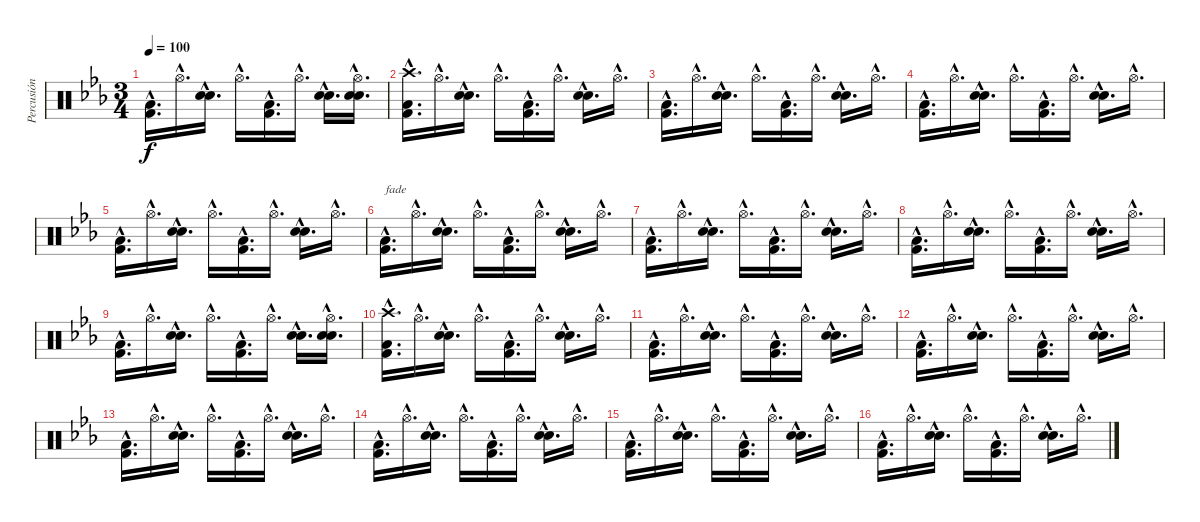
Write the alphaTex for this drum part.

\track ("Percusión" "Percusión") {instrument percussion}
\staff {score}
\articulation defaults
\ts (3 4)
\tempo 100
\clef neutral
\ks eb
("Low Floor Tom (hit)"{hac} "Kick (hit) 2"{hac}).16{d dy f} "Hi-Hat (open)"{hac pm}.16{d} ("Electric Snare (hit)"{hac} "Snare (hit) 2"{hac}).16{d} "Hi-Hat (open)"{hac pm}.16{d} ("Low Floor Tom (hit)"{hac} "Kick (hit) 2"{hac}).16{d} "Hi-Hat (open)"{hac pm}.16{d} ("Electric Snare (hit)"{hac} "Snare (hit) 2"{hac}).16{d} ("Hi-Hat (open)"{hac pm} "Electric Snare (hit)"{hac} "Snare (hit) 2"{hac}).16{d} |
("Low Floor Tom (hit)"{hac} "Kick (hit) 2"{hac} "Crash high (hit)"{hac}).16{d} "Hi-Hat (open)"{hac pm}.16{d} ("Electric Snare (hit)"{hac} "Snare (hit) 2"{hac}).16{d} "Hi-Hat (open)"{hac pm}.16{d} ("Low Floor Tom (hit)"{hac} "Kick (hit) 2"{hac}).16{d} "Hi-Hat (open)"{hac pm}.16{d} ("Electric Snare (hit)"{hac} "Snare (hit) 2"{hac}).16{d} "Hi-Hat (open)"{hac pm}.16{d} |
("Low Floor Tom (hit)"{hac} "Kick (hit) 2"{hac}).16{d} "Hi-Hat (open)"{hac pm}.16{d} ("Electric Snare (hit)"{hac} "Snare (hit) 2"{hac}).16{d} "Hi-Hat (open)"{hac pm}.16{d} ("Low Floor Tom (hit)"{hac} "Kick (hit) 2"{hac}).16{d} "Hi-Hat (open)"{hac pm}.16{d} ("Electric Snare (hit)"{hac} "Snare (hit) 2"{hac}).16{d} "Hi-Hat (open)"{hac pm}.16{d} |
("Low Floor Tom (hit)"{hac} "Kick (hit) 2"{hac}).16{d} "Hi-Hat (open)"{hac pm}.16{d} ("Electric Snare (hit)"{hac} "Snare (hit) 2"{hac}).16{d} "Hi-Hat (open)"{hac pm}.16{d} ("Low Floor Tom (hit)"{hac} "Kick (hit) 2"{hac}).16{d} "Hi-Hat (open)"{hac pm}.16{d} ("Electric Snare (hit)"{hac} "Snare (hit) 2"{hac}).16{d} "Hi-Hat (open)"{hac pm}.16{d} |
("Low Floor Tom (hit)"{hac} "Kick (hit) 2"{hac}).16{d} "Hi-Hat (open)"{hac pm}.16{d} ("Electric Snare (hit)"{hac} "Snare (hit) 2"{hac}).16{d} "Hi-Hat (open)"{hac pm}.16{d} ("Low Floor Tom (hit)"{hac} "Kick (hit) 2"{hac}).16{d} "Hi-Hat (open)"{hac pm}.16{d} ("Electric Snare (hit)"{hac} "Snare (hit) 2"{hac}).16{d} "Hi-Hat (open)"{hac pm}.16{d} |
("Low Floor Tom (hit)"{hac} "Kick (hit) 2"{hac}).16{d txt "fade" volume 9} "Hi-Hat (open)"{hac pm}.16{d} ("Electric Snare (hit)"{hac} "Snare (hit) 2"{hac}).16{d} "Hi-Hat (open)"{hac pm}.16{d} ("Low Floor Tom (hit)"{hac} "Kick (hit) 2"{hac}).16{d} "Hi-Hat (open)"{hac pm}.16{d} ("Electric Snare (hit)"{hac} "Snare (hit) 2"{hac}).16{d} "Hi-Hat (open)"{hac pm}.16{d} |
("Low Floor Tom (hit)"{hac} "Kick (hit) 2"{hac}).16{d} "Hi-Hat (open)"{hac pm}.16{d} ("Electric Snare (hit)"{hac} "Snare (hit) 2"{hac}).16{d} "Hi-Hat (open)"{hac pm}.16{d} ("Low Floor Tom (hit)"{hac} "Kick (hit) 2"{hac}).16{d} "Hi-Hat (open)"{hac pm}.16{d} ("Electric Snare (hit)"{hac} "Snare (hit) 2"{hac}).16{d} "Hi-Hat (open)"{hac pm}.16{d} |
("Low Floor Tom (hit)"{hac} "Kick (hit) 2"{hac}).16{d} "Hi-Hat (open)"{hac pm}.16{d} ("Electric Snare (hit)"{hac} "Snare (hit) 2"{hac}).16{d} "Hi-Hat (open)"{hac pm}.16{d} ("Low Floor Tom (hit)"{hac} "Kick (hit) 2"{hac}).16{d} "Hi-Hat (open)"{hac pm}.16{d} ("Electric Snare (hit)"{hac} "Snare (hit) 2"{hac}).16{d} "Hi-Hat (open)"{hac pm}.16{d} |
("Low Floor Tom (hit)"{hac} "Kick (hit) 2"{hac}).16{d} "Hi-Hat (open)"{hac pm}.16{d} ("Electric Snare (hit)"{hac} "Snare (hit) 2"{hac}).16{d} "Hi-Hat (open)"{hac pm}.16{d} ("Low Floor Tom (hit)"{hac} "Kick (hit) 2"{hac}).16{d} "Hi-Hat (open)"{hac pm}.16{d} ("Electric Snare (hit)"{hac} "Snare (hit) 2"{hac}).16{d} ("Hi-Hat (open)"{hac pm} "Electric Snare (hit)"{hac} "Snare (hit) 2"{hac}).16{d} |
("Low Floor Tom (hit)"{hac} "Kick (hit) 2"{hac} "Crash high (hit)"{hac}).16{d volume 5} "Hi-Hat (open)"{hac pm}.16{d} ("Electric Snare (hit)"{hac} "Snare (hit) 2"{hac}).16{d} "Hi-Hat (open)"{hac pm}.16{d} ("Low Floor Tom (hit)"{hac} "Kick (hit) 2"{hac}).16{d} "Hi-Hat (open)"{hac pm}.16{d} ("Electric Snare (hit)"{hac} "Snare (hit) 2"{hac}).16{d} "Hi-Hat (open)"{hac pm}.16{d} |
("Low Floor Tom (hit)"{hac} "Kick (hit) 2"{hac}).16{d} "Hi-Hat (open)"{hac pm}.16{d} ("Electric Snare (hit)"{hac} "Snare (hit) 2"{hac}).16{d} "Hi-Hat (open)"{hac pm}.16{d} ("Low Floor Tom (hit)"{hac} "Kick (hit) 2"{hac}).16{d} "Hi-Hat (open)"{hac pm}.16{d} ("Electric Snare (hit)"{hac} "Snare (hit) 2"{hac}).16{d} "Hi-Hat (open)"{hac pm}.16{d} |
("Low Floor Tom (hit)"{hac} "Kick (hit) 2"{hac}).16{d} "Hi-Hat (open)"{hac pm}.16{d} ("Electric Snare (hit)"{hac} "Snare (hit) 2"{hac}).16{d} "Hi-Hat (open)"{hac pm}.16{d} ("Low Floor Tom (hit)"{hac} "Kick (hit) 2"{hac}).16{d} "Hi-Hat (open)"{hac pm}.16{d} ("Electric Snare (hit)"{hac} "Snare (hit) 2"{hac}).16{d} "Hi-Hat (open)"{hac pm}.16{d} |
("Low Floor Tom (hit)"{hac} "Kick (hit) 2"{hac}).16{d} "Hi-Hat (open)"{hac pm}.16{d} ("Electric Snare (hit)"{hac} "Snare (hit) 2"{hac}).16{d} "Hi-Hat (open)"{hac pm}.16{d} ("Low Floor Tom (hit)"{hac} "Kick (hit) 2"{hac}).16{d} "Hi-Hat (open)"{hac pm}.16{d} ("Electric Snare (hit)"{hac} "Snare (hit) 2"{hac}).16{d} "Hi-Hat (open)"{hac pm}.16{d} |
("Low Floor Tom (hit)"{hac} "Kick (hit) 2"{hac}).16{d volume 0} "Hi-Hat (open)"{hac pm}.16{d} ("Electric Snare (hit)"{hac} "Snare (hit) 2"{hac}).16{d} "Hi-Hat (open)"{hac pm}.16{d} ("Low Floor Tom (hit)"{hac} "Kick (hit) 2"{hac}).16{d} "Hi-Hat (open)"{hac pm}.16{d} ("Electric Snare (hit)"{hac} "Snare (hit) 2"{hac}).16{d} "Hi-Hat (open)"{hac pm}.16{d} |
("Low Floor Tom (hit)"{hac} "Kick (hit) 2"{hac}).16{d} "Hi-Hat (open)"{hac pm}.16{d} ("Electric Snare (hit)"{hac} "Snare (hit) 2"{hac}).16{d} "Hi-Hat (open)"{hac pm}.16{d} ("Low Floor Tom (hit)"{hac} "Kick (hit) 2"{hac}).16{d} "Hi-Hat (open)"{hac pm}.16{d} ("Electric Snare (hit)"{hac} "Snare (hit) 2"{hac}).16{d} "Hi-Hat (open)"{hac pm}.16{d} |
("Low Floor Tom (hit)"{hac} "Kick (hit) 2"{hac}).16{d} "Hi-Hat (open)"{hac pm}.16{d} ("Electric Snare (hit)"{hac} "Snare (hit) 2"{hac}).16{d} "Hi-Hat (open)"{hac pm}.16{d} ("Low Floor Tom (hit)"{hac} "Kick (hit) 2"{hac}).16{d} "Hi-Hat (open)"{hac pm}.16{d} ("Electric Snare (hit)"{hac} "Snare (hit) 2"{hac}).16{d} "Hi-Hat (open)"{hac pm}.16{d}
